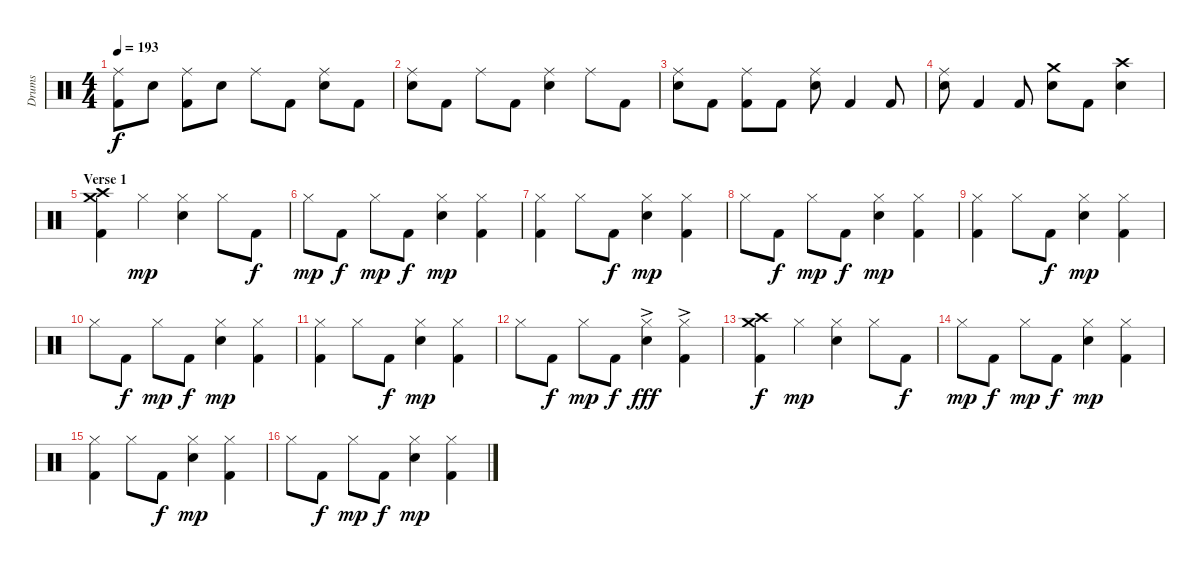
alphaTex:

\track ("Drums" "Drums") {instrument percussion}
\staff {score}
\articulation defaults
\ts (4 4)
\tempo 193
\clef neutral
\ks c
("Ride (middle)" "Kick (hit) 2").8{dy f} "Snare (hit) 2".8 ("Ride (middle)" "Kick (hit) 2").8 "Snare (hit) 2".8 "Ride (middle)".8 "Kick (hit) 2".8 ("Ride (middle)" "Snare (hit) 2").8 "Kick (hit) 2".8 |
("Ride (middle)" "Snare (hit) 2").8 "Kick (hit) 2".8 "Ride (middle)".8 "Kick (hit) 2".8 ("Ride (middle)" "Snare (hit) 2").4 "Ride (middle)".8 "Kick (hit) 2".8 |
("Ride (middle)" "Snare (hit) 2").8 "Kick (hit) 2".8 ("Ride (middle)" "Kick (hit) 2").8 "Kick (hit) 2".8 ("Ride (middle)" "Snare (hit) 2").8 "Kick (hit) 2".4 "Kick (hit) 2".8 |
("Ride (middle)" "Snare (hit) 2").8 "Kick (hit) 2".4 "Kick (hit) 2".8 ("Crash medium (hit)" "Snare (hit) 2").8 "Kick (hit) 2".8 ("Crash high (hit)" "Snare (hit) 2").4 |
\section ("" "Verse 1")
("Crash medium (hit)" "Crash high (hit)" "Kick (hit) 2").4 "Hi-Hat (closed)".4{dy mp} ("Hi-Hat (closed)" "Snare (hit) 2").4 "Hi-Hat (closed)".8 "Kick (hit) 2".8{dy f} |
"Hi-Hat (closed)".8{dy mp} "Kick (hit) 2".8{dy f} "Hi-Hat (closed)".8{dy mp} "Kick (hit) 2".8{dy f} ("Hi-Hat (closed)" "Snare (hit) 2").4{dy mp} ("Hi-Hat (closed)" "Kick (hit) 2").4 |
("Hi-Hat (closed)" "Kick (hit) 2").4 "Hi-Hat (closed)".8 "Kick (hit) 2".8{dy f} ("Hi-Hat (closed)" "Snare (hit) 2").4{dy mp} ("Hi-Hat (closed)" "Kick (hit) 2").4 |
"Hi-Hat (closed)".8 "Kick (hit) 2".8{dy f} "Hi-Hat (closed)".8{dy mp} "Kick (hit) 2".8{dy f} ("Hi-Hat (closed)" "Snare (hit) 2").4{dy mp} ("Hi-Hat (closed)" "Kick (hit) 2").4 |
("Hi-Hat (closed)" "Kick (hit) 2").4 "Hi-Hat (closed)".8 "Kick (hit) 2".8{dy f} ("Hi-Hat (closed)" "Snare (hit) 2").4{dy mp} ("Hi-Hat (closed)" "Kick (hit) 2").4 |
"Hi-Hat (closed)".8 "Kick (hit) 2".8{dy f} "Hi-Hat (closed)".8{dy mp} "Kick (hit) 2".8{dy f} ("Hi-Hat (closed)" "Snare (hit) 2").4{dy mp} ("Hi-Hat (closed)" "Kick (hit) 2").4 |
("Hi-Hat (closed)" "Kick (hit) 2").4 "Hi-Hat (closed)".8 "Kick (hit) 2".8{dy f} ("Hi-Hat (closed)" "Snare (hit) 2").4{dy mp} ("Hi-Hat (closed)" "Kick (hit) 2").4 |
"Hi-Hat (closed)".8 "Kick (hit) 2".8{dy f} "Hi-Hat (closed)".8{dy mp} "Kick (hit) 2".8{dy f} ("Hi-Hat (closed)" "Snare (hit) 2"{ac}).4{dy fff} ("Hi-Hat (closed)" "Kick (hit) 2"{ac}).4 |
("Crash medium (hit)" "Crash high (hit)" "Kick (hit) 2").4{dy f} "Hi-Hat (closed)".4{dy mp} ("Hi-Hat (closed)" "Snare (hit) 2").4 "Hi-Hat (closed)".8 "Kick (hit) 2".8{dy f} |
"Hi-Hat (closed)".8{dy mp} "Kick (hit) 2".8{dy f} "Hi-Hat (closed)".8{dy mp} "Kick (hit) 2".8{dy f} ("Hi-Hat (closed)" "Snare (hit) 2").4{dy mp} ("Hi-Hat (closed)" "Kick (hit) 2").4 |
("Hi-Hat (closed)" "Kick (hit) 2").4 "Hi-Hat (closed)".8 "Kick (hit) 2".8{dy f} ("Hi-Hat (closed)" "Snare (hit) 2").4{dy mp} ("Hi-Hat (closed)" "Kick (hit) 2").4 |
"Hi-Hat (closed)".8 "Kick (hit) 2".8{dy f} "Hi-Hat (closed)".8{dy mp} "Kick (hit) 2".8{dy f} ("Hi-Hat (closed)" "Snare (hit) 2").4{dy mp} ("Hi-Hat (closed)" "Kick (hit) 2").4
